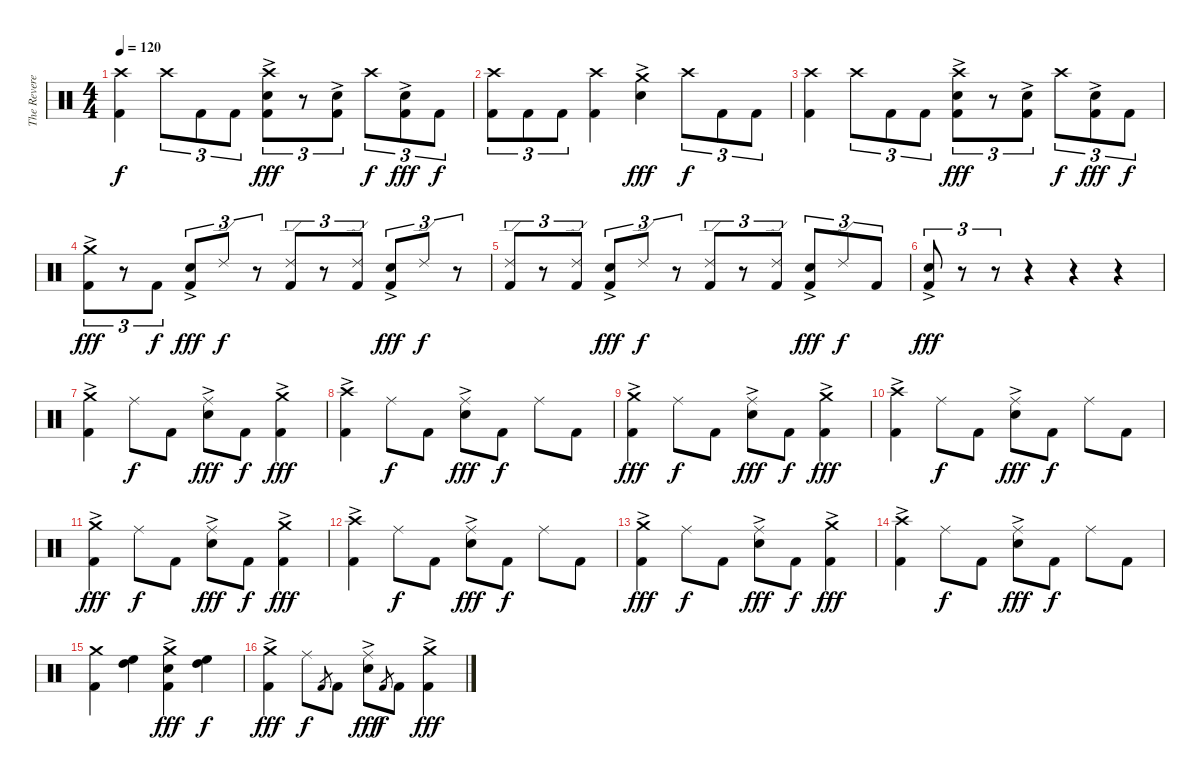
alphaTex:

\track ("The Reverend" "The Revere") {instrument percussion}
\staff {score}
\articulation defaults
\ts (4 4)
\tempo 120
\clef neutral
\ks c
("Crash high (hit)" "Kick (hit) 2").4{dy f} "Crash high (hit)".8{tu (3 2)} "Kick (hit) 2".8{tu (3 2)} "Kick (hit) 2".8{tu (3 2)} ("Crash high (hit)" "Electric Snare (hit)"{ac} "Kick (hit) 2").8{tu (3 2) dy fff} r.8{tu (3 2)} ("Electric Snare (hit)"{ac} "Kick (hit) 2").8{tu (3 2)} "Crash high (hit)".8{tu (3 2) dy f} ("Electric Snare (hit)"{ac} "Kick (hit) 2").8{tu (3 2) dy fff} "Kick (hit) 2".8{tu (3 2) dy f} |
("Crash high (hit)" "Kick (hit) 2").8{tu (3 2)} "Kick (hit) 2".8{tu (3 2)} "Kick (hit) 2".8{tu (3 2)} ("Crash high (hit)" "Kick (hit) 2").4 ("Crash medium (hit)"{ac} "Electric Snare (hit)"{ac}).4{dy fff} "Crash high (hit)".8{tu (3 2) dy f} "Kick (hit) 2".8{tu (3 2)} "Kick (hit) 2".8{tu (3 2)} |
("Crash high (hit)" "Kick (hit) 2").4 "Crash high (hit)".8{tu (3 2)} "Kick (hit) 2".8{tu (3 2)} "Kick (hit) 2".8{tu (3 2)} ("Crash high (hit)" "Electric Snare (hit)"{ac} "Kick (hit) 2").8{tu (3 2) dy fff} r.8{tu (3 2)} ("Electric Snare (hit)"{ac} "Kick (hit) 2").8{tu (3 2)} "Crash high (hit)".8{tu (3 2) dy f} ("Electric Snare (hit)"{ac} "Kick (hit) 2").8{tu (3 2) dy fff} "Kick (hit) 2".8{tu (3 2) dy f} |
("Crash medium (hit)"{ac} "Kick (hit) 2").8{tu (3 2) dy fff} r.8{tu (3 2)} "Kick (hit) 2".8{tu (3 2) dy f} ("Electric Snare (hit)"{ac} "Kick (hit) 2").8{tu (3 2) dy fff} "Ride (edge) 2".8{tu (3 2) dy f} r.8{tu (3 2)} ("Ride (edge) 2" "Kick (hit) 2").8{tu (3 2)} r.8{tu (3 2)} ("Ride (edge) 2" "Kick (hit) 2").8{tu (3 2)} ("Electric Snare (hit)"{ac} "Kick (hit) 2").8{tu (3 2) dy fff} "Ride (edge) 2".8{tu (3 2) dy f} r.8{tu (3 2)} |
("Ride (edge) 2" "Kick (hit) 2").8{tu (3 2)} r.8{tu (3 2)} ("Ride (edge) 2" "Kick (hit) 2").8{tu (3 2)} ("Electric Snare (hit)"{ac} "Kick (hit) 2").8{tu (3 2) dy fff} "Ride (edge) 2".8{tu (3 2) dy f} r.8{tu (3 2)} ("Ride (edge) 2" "Kick (hit) 2").8{tu (3 2)} r.8{tu (3 2)} ("Ride (edge) 2" "Kick (hit) 2").8{tu (3 2)} ("Electric Snare (hit)"{ac} "Kick (hit) 2").8{tu (3 2) dy fff} "Ride (edge) 2".8{tu (3 2) dy f} "Kick (hit) 2".8{tu (3 2)} |
("Electric Snare (hit)"{ac} "Kick (hit) 2").8{tu (3 2) dy fff} r.8{tu (3 2)} r.8{tu (3 2)} r.4 r.4 r.4 |
("Crash medium (hit)"{ac} "Kick (hit) 2").4 "Ride (middle)".8{dy f} "Kick (hit) 2".8 ("Ride (middle)" "Electric Snare (hit)"{ac}).8{dy fff} "Kick (hit) 2".8{dy f} ("Crash medium (hit)"{ac} "Kick (hit) 2").4{dy fff} |
("Crash high (hit)"{ac} "Kick (hit) 2").4 "Ride (middle)".8{dy f} "Kick (hit) 2".8 ("Ride (middle)" "Electric Snare (hit)"{ac}).8{dy fff} "Kick (hit) 2".8{dy f} "Ride (middle)".8 "Kick (hit) 2".8 |
("Crash medium (hit)"{ac} "Kick (hit) 2").4{dy fff} "Ride (middle)".8{dy f} "Kick (hit) 2".8 ("Ride (middle)" "Electric Snare (hit)"{ac}).8{dy fff} "Kick (hit) 2".8{dy f} ("Crash medium (hit)"{ac} "Kick (hit) 2").4{dy fff} |
("Crash high (hit)"{ac} "Kick (hit) 2").4 "Ride (middle)".8{dy f} "Kick (hit) 2".8 ("Ride (middle)" "Electric Snare (hit)"{ac}).8{dy fff} "Kick (hit) 2".8{dy f} "Ride (middle)".8 "Kick (hit) 2".8 |
("Crash medium (hit)"{ac} "Kick (hit) 2").4{dy fff} "Ride (middle)".8{dy f} "Kick (hit) 2".8 ("Ride (middle)" "Electric Snare (hit)"{ac}).8{dy fff} "Kick (hit) 2".8{dy f} ("Crash medium (hit)"{ac} "Kick (hit) 2").4{dy fff} |
("Crash high (hit)"{ac} "Kick (hit) 2").4 "Ride (middle)".8{dy f} "Kick (hit) 2".8 ("Ride (middle)" "Electric Snare (hit)"{ac}).8{dy fff} "Kick (hit) 2".8{dy f} "Ride (middle)".8 "Kick (hit) 2".8 |
("Crash medium (hit)"{ac} "Kick (hit) 2").4{dy fff} "Ride (middle)".8{dy f} "Kick (hit) 2".8 ("Ride (middle)" "Electric Snare (hit)"{ac}).8{dy fff} "Kick (hit) 2".8{dy f} ("Crash medium (hit)"{ac} "Kick (hit) 2").4{dy fff} |
("Crash high (hit)"{ac} "Kick (hit) 2").4 "Ride (middle)".8{dy f} "Kick (hit) 2".8 ("Ride (middle)" "Electric Snare (hit)"{ac}).8{dy fff} "Kick (hit) 2".8{dy f} "Ride (middle)".8 "Kick (hit) 2".8 |
("Crash medium (hit)" "Kick (hit) 2").4 ("High Floor Tom (hit)" "High Tom (hit)").4 ("Crash medium (hit)" "Electric Snare (hit)"{ac} "Kick (hit) 2").4{dy fff} ("High Floor Tom (hit)" "High Tom (hit)").4{dy f} |
("Crash medium (hit)"{ac} "Kick (hit) 2").4{dy fff} "Ride (middle)".8{dy f} "Kick (hit) 2".8{gr} "Kick (hit) 2".8 ("Ride (middle)" "Electric Snare (hit)"{ac}).8{dy fff} "Kick (hit) 2".8{gr dy f} "Kick (hit) 2".8 ("Crash medium (hit)"{ac} "Kick (hit) 2").4{dy fff}
